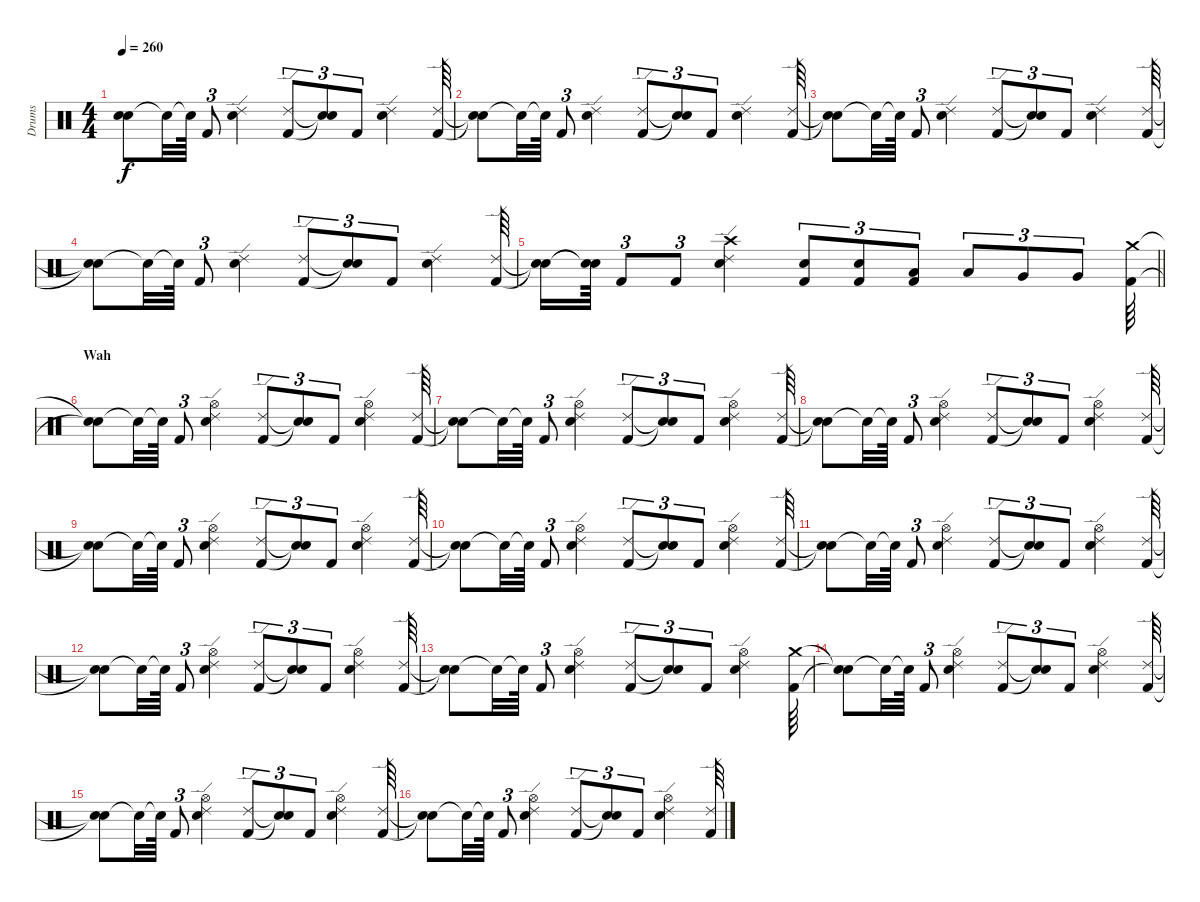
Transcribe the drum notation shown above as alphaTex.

\track ("Drums" "Drums") {instrument percussion}
\staff {score}
\articulation defaults
\ts (4 4)
\tempo 260
\clef neutral
\ks c
("Snare (hit)"{t} "Snare (hit)"{t}).8{dy f} "Snare (hit)"{t}.32 "Snare (hit)"{t}.64 "Kick (hit) 2".8{tu (3 2)} ("Electric Snare (hit)" "Ride (edge) 2").4 ("Kick (hit) 2" "Ride (edge) 2").8{tu (3 2)} ("Snare (hit)"{t} "Snare (hit)"{t}).8{tu (3 2)} "Kick (hit) 2".8{tu (3 2)} ("Electric Snare (hit)" "Ride (edge) 2").4 ("Kick (hit) 2" "Ride (edge) 2").64 |
("Snare (hit)"{t} "Snare (hit)"{t}).8 "Snare (hit)"{t}.32 "Snare (hit)"{t}.64 "Kick (hit) 2".8{tu (3 2)} ("Electric Snare (hit)" "Ride (edge) 2").4 ("Kick (hit) 2" "Ride (edge) 2").8{tu (3 2)} ("Snare (hit)"{t} "Snare (hit)"{t}).8{tu (3 2)} "Kick (hit) 2".8{tu (3 2)} ("Electric Snare (hit)" "Ride (edge) 2").4 ("Kick (hit) 2" "Ride (edge) 2").64 |
("Snare (hit)"{t} "Snare (hit)"{t}).8 "Snare (hit)"{t}.32 "Snare (hit)"{t}.64 "Kick (hit) 2".8{tu (3 2)} ("Electric Snare (hit)" "Ride (edge) 2").4 ("Kick (hit) 2" "Ride (edge) 2").8{tu (3 2)} ("Snare (hit)"{t} "Snare (hit)"{t}).8{tu (3 2)} "Kick (hit) 2".8{tu (3 2)} ("Electric Snare (hit)" "Ride (edge) 2").4 ("Kick (hit) 2" "Ride (edge) 2").64 |
("Snare (hit)"{t} "Snare (hit)"{t}).8 "Snare (hit)"{t}.32 "Snare (hit)"{t}.64 "Kick (hit) 2".8{tu (3 2)} ("Electric Snare (hit)" "Ride (edge) 2").4 ("Kick (hit) 2" "Ride (edge) 2").8{tu (3 2)} ("Snare (hit)"{t} "Snare (hit)"{t}).8{tu (3 2)} "Kick (hit) 2".8{tu (3 2)} ("Electric Snare (hit)" "Ride (edge) 2").4 ("Kick (hit) 2" "Ride (edge) 2").64 |
\barLineRight lightlight
("Snare (hit)"{t} "Snare (hit)"{t}).16 ("Snare (hit)"{t} "Snare (hit)"{t}).64 "Kick (hit) 2".8{tu (3 2)} "Kick (hit) 2".8{tu (3 2)} ("Electric Snare (hit)" "Ride (edge) 2" "Crash high (hit)").4 ("Kick (hit) 2" "Electric Snare (hit)").8{tu (3 2)} ("Kick (hit) 2" "Electric Snare (hit)").8{tu (3 2)} ("Kick (hit) 2" "Low Tom (hit)").8{tu (3 2)} "Low Tom (hit)".8{tu (3 2)} "Very Low Tom (hit)".8{tu (3 2)} "Very Low Tom (hit)".8{tu (3 2)} ("Kick (hit) 2" "Crash medium (hit)").64 |
\section ("" "Wah")
("Snare (hit)"{t} "Snare (hit)"{t}).8 "Snare (hit)"{t}.32 "Snare (hit)"{t}.64 "Kick (hit) 2".8{tu (3 2)} ("Electric Snare (hit)" "Ride (edge) 2" "Hi-Hat (open)").4 ("Kick (hit) 2" "Ride (edge) 2").8{tu (3 2)} ("Snare (hit)"{t} "Snare (hit)"{t}).8{tu (3 2)} "Kick (hit) 2".8{tu (3 2)} ("Electric Snare (hit)" "Ride (edge) 2" "Hi-Hat (open)").4 ("Kick (hit) 2" "Ride (edge) 2").64 |
("Snare (hit)"{t} "Snare (hit)"{t}).8 "Snare (hit)"{t}.32 "Snare (hit)"{t}.64 "Kick (hit) 2".8{tu (3 2)} ("Electric Snare (hit)" "Ride (edge) 2" "Hi-Hat (open)").4 ("Kick (hit) 2" "Ride (edge) 2").8{tu (3 2)} ("Snare (hit)"{t} "Snare (hit)"{t}).8{tu (3 2)} "Kick (hit) 2".8{tu (3 2)} ("Electric Snare (hit)" "Ride (edge) 2" "Hi-Hat (open)").4 ("Kick (hit) 2" "Ride (edge) 2").64 |
("Snare (hit)"{t} "Snare (hit)"{t}).8 "Snare (hit)"{t}.32 "Snare (hit)"{t}.64 "Kick (hit) 2".8{tu (3 2)} ("Electric Snare (hit)" "Ride (edge) 2" "Hi-Hat (open)").4 ("Kick (hit) 2" "Ride (edge) 2").8{tu (3 2)} ("Snare (hit)"{t} "Snare (hit)"{t}).8{tu (3 2)} "Kick (hit) 2".8{tu (3 2)} ("Electric Snare (hit)" "Ride (edge) 2" "Hi-Hat (open)").4 ("Kick (hit) 2" "Ride (edge) 2").64 |
("Snare (hit)"{t} "Snare (hit)"{t}).8 "Snare (hit)"{t}.32 "Snare (hit)"{t}.64 "Kick (hit) 2".8{tu (3 2)} ("Electric Snare (hit)" "Ride (edge) 2" "Hi-Hat (open)").4 ("Kick (hit) 2" "Ride (edge) 2").8{tu (3 2)} ("Snare (hit)"{t} "Snare (hit)"{t}).8{tu (3 2)} "Kick (hit) 2".8{tu (3 2)} ("Electric Snare (hit)" "Ride (edge) 2" "Hi-Hat (open)").4 ("Kick (hit) 2" "Ride (edge) 2").64 |
("Snare (hit)"{t} "Snare (hit)"{t}).8 "Snare (hit)"{t}.32 "Snare (hit)"{t}.64 "Kick (hit) 2".8{tu (3 2)} ("Electric Snare (hit)" "Ride (edge) 2" "Hi-Hat (open)").4 ("Kick (hit) 2" "Ride (edge) 2").8{tu (3 2)} ("Snare (hit)"{t} "Snare (hit)"{t}).8{tu (3 2)} "Kick (hit) 2".8{tu (3 2)} ("Electric Snare (hit)" "Ride (edge) 2" "Hi-Hat (open)").4 ("Kick (hit) 2" "Ride (edge) 2").64 |
("Snare (hit)"{t} "Snare (hit)"{t}).8 "Snare (hit)"{t}.32 "Snare (hit)"{t}.64 "Kick (hit) 2".8{tu (3 2)} ("Electric Snare (hit)" "Ride (edge) 2" "Hi-Hat (open)").4 ("Kick (hit) 2" "Ride (edge) 2").8{tu (3 2)} ("Snare (hit)"{t} "Snare (hit)"{t}).8{tu (3 2)} "Kick (hit) 2".8{tu (3 2)} ("Electric Snare (hit)" "Ride (edge) 2" "Hi-Hat (open)").4 ("Kick (hit) 2" "Ride (edge) 2").64 |
("Snare (hit)"{t} "Snare (hit)"{t}).8 "Snare (hit)"{t}.32 "Snare (hit)"{t}.64 "Kick (hit) 2".8{tu (3 2)} ("Electric Snare (hit)" "Ride (edge) 2" "Hi-Hat (open)").4 ("Kick (hit) 2" "Ride (edge) 2").8{tu (3 2)} ("Snare (hit)"{t} "Snare (hit)"{t}).8{tu (3 2)} "Kick (hit) 2".8{tu (3 2)} ("Electric Snare (hit)" "Ride (edge) 2" "Hi-Hat (open)").4 ("Kick (hit) 2" "Ride (edge) 2").64 |
("Snare (hit)"{t} "Snare (hit)"{t}).8 "Snare (hit)"{t}.32 "Snare (hit)"{t}.64 "Kick (hit) 2".8{tu (3 2)} ("Electric Snare (hit)" "Ride (edge) 2" "Hi-Hat (open)").4 ("Kick (hit) 2" "Ride (edge) 2").8{tu (3 2)} ("Snare (hit)"{t} "Snare (hit)"{t}).8{tu (3 2)} "Kick (hit) 2".8{tu (3 2)} ("Electric Snare (hit)" "Ride (edge) 2" "Hi-Hat (open)").4 ("Kick (hit) 2" "Crash medium (hit)").64 |
("Snare (hit)"{t} "Snare (hit)"{t}).8 "Snare (hit)"{t}.32 "Snare (hit)"{t}.64 "Kick (hit) 2".8{tu (3 2)} ("Electric Snare (hit)" "Ride (edge) 2" "Hi-Hat (open)").4 ("Kick (hit) 2" "Ride (edge) 2").8{tu (3 2)} ("Snare (hit)"{t} "Snare (hit)"{t}).8{tu (3 2)} "Kick (hit) 2".8{tu (3 2)} ("Electric Snare (hit)" "Ride (edge) 2" "Hi-Hat (open)").4 ("Kick (hit) 2" "Ride (edge) 2").64 |
("Snare (hit)"{t} "Snare (hit)"{t}).8 "Snare (hit)"{t}.32 "Snare (hit)"{t}.64 "Kick (hit) 2".8{tu (3 2)} ("Electric Snare (hit)" "Ride (edge) 2" "Hi-Hat (open)").4 ("Kick (hit) 2" "Ride (edge) 2").8{tu (3 2)} ("Snare (hit)"{t} "Snare (hit)"{t}).8{tu (3 2)} "Kick (hit) 2".8{tu (3 2)} ("Electric Snare (hit)" "Ride (edge) 2" "Hi-Hat (open)").4 ("Kick (hit) 2" "Ride (edge) 2").64 |
("Snare (hit)"{t} "Snare (hit)"{t}).8 "Snare (hit)"{t}.32 "Snare (hit)"{t}.64 "Kick (hit) 2".8{tu (3 2)} ("Electric Snare (hit)" "Ride (edge) 2" "Hi-Hat (open)").4 ("Kick (hit) 2" "Ride (edge) 2").8{tu (3 2)} ("Snare (hit)"{t} "Snare (hit)"{t}).8{tu (3 2)} "Kick (hit) 2".8{tu (3 2)} ("Electric Snare (hit)" "Ride (edge) 2" "Hi-Hat (open)").4 ("Kick (hit) 2" "Ride (edge) 2").64
